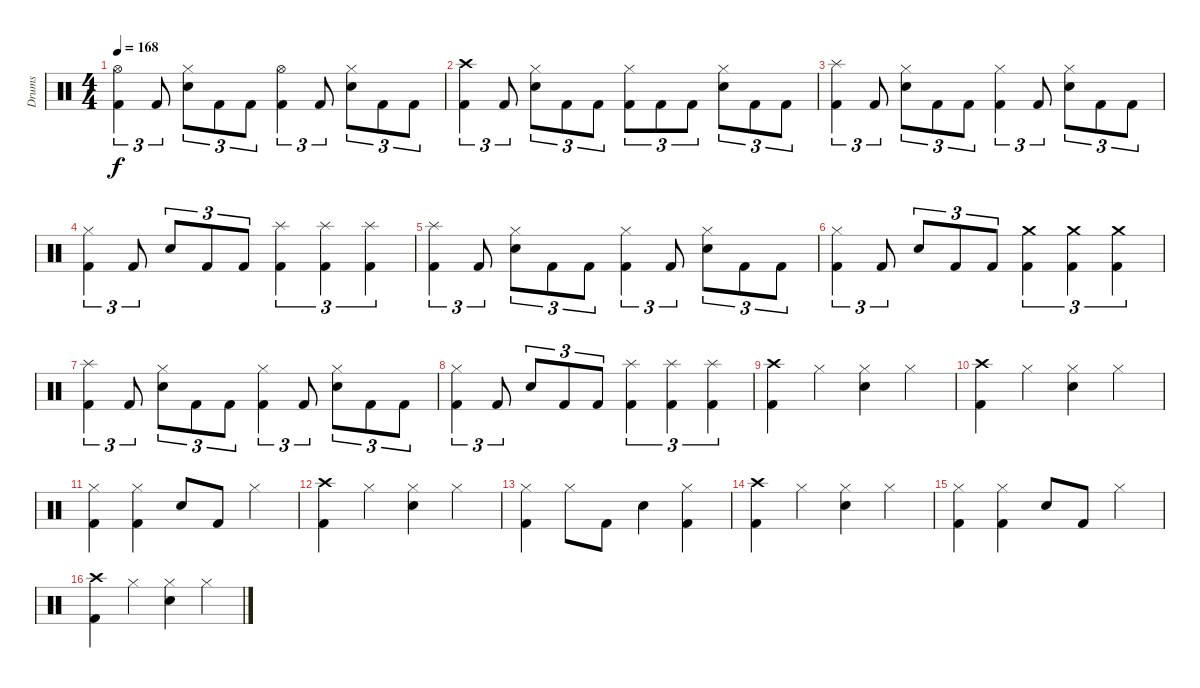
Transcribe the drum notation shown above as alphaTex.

\track ("Drums" "Drums") {instrument percussion}
\staff {score}
\articulation defaults
\ts (4 4)
\tempo 168
\clef neutral
\ks c
("Kick (hit) 2" "Hi-Hat (open)").4{tu (3 2) dy f} "Kick (hit) 2".8{tu (3 2)} ("Hi-Hat (closed)" "Electric Snare (hit)").8{tu (3 2)} "Kick (hit) 2".8{tu (3 2)} "Kick (hit) 2".8{tu (3 2)} ("Kick (hit) 2" "Hi-Hat (open)").4{tu (3 2)} "Kick (hit) 2".8{tu (3 2)} ("Hi-Hat (closed)" "Electric Snare (hit)").8{tu (3 2)} "Kick (hit) 2".8{tu (3 2)} "Kick (hit) 2".8{tu (3 2)} |
("Kick (hit) 2" "Crash high (hit)").4{tu (3 2)} "Kick (hit) 2".8{tu (3 2)} ("Hi-Hat (closed)" "Electric Snare (hit)").8{tu (3 2)} "Kick (hit) 2".8{tu (3 2)} "Kick (hit) 2".8{tu (3 2)} ("Kick (hit) 2" "Hi-Hat (closed)").8{tu (3 2)} "Kick (hit) 2".8{tu (3 2)} "Kick (hit) 2".8{tu (3 2)} ("Hi-Hat (closed)" "Electric Snare (hit)").8{tu (3 2)} "Kick (hit) 2".8{tu (3 2)} "Kick (hit) 2".8{tu (3 2)} |
("Kick (hit) 2" "Splash (hit)").4{tu (3 2)} "Kick (hit) 2".8{tu (3 2)} ("Electric Snare (hit)" "Hi-Hat (closed)").8{tu (3 2)} "Kick (hit) 2".8{tu (3 2)} "Kick (hit) 2".8{tu (3 2)} ("Kick (hit) 2" "Hi-Hat (closed)").4{tu (3 2)} "Kick (hit) 2".8{tu (3 2)} ("Electric Snare (hit)" "Hi-Hat (closed)").8{tu (3 2)} "Kick (hit) 2".8{tu (3 2)} "Kick (hit) 2".8{tu (3 2)} |
("Kick (hit) 2" "Hi-Hat (closed)").4{tu (3 2)} "Kick (hit) 2".8{tu (3 2)} "Electric Snare (hit)".8{tu (3 2)} "Kick (hit) 2".8{tu (3 2)} "Kick (hit) 2".8{tu (3 2)} ("Kick (hit) 2" "Splash (hit)").4{tu (3 2)} ("Kick (hit) 2" "Splash (hit)").4{tu (3 2)} ("Kick (hit) 2" "Splash (hit)").4{tu (3 2)} |
("Kick (hit) 2" "Splash (hit)").4{tu (3 2)} "Kick (hit) 2".8{tu (3 2)} ("Electric Snare (hit)" "Hi-Hat (closed)").8{tu (3 2)} "Kick (hit) 2".8{tu (3 2)} "Kick (hit) 2".8{tu (3 2)} ("Kick (hit) 2" "Hi-Hat (closed)").4{tu (3 2)} "Kick (hit) 2".8{tu (3 2)} ("Electric Snare (hit)" "Hi-Hat (closed)").8{tu (3 2)} "Kick (hit) 2".8{tu (3 2)} "Kick (hit) 2".8{tu (3 2)} |
("Kick (hit) 2" "Hi-Hat (closed)").4{tu (3 2)} "Kick (hit) 2".8{tu (3 2)} "Electric Snare (hit)".8{tu (3 2)} "Kick (hit) 2".8{tu (3 2)} "Kick (hit) 2".8{tu (3 2)} ("Kick (hit) 2" "Crash medium (hit)").4{tu (3 2) balance 5} ("Kick (hit) 2" "Crash medium (hit)").4{tu (3 2)} ("Kick (hit) 2" "Crash medium (hit)").4{tu (3 2)} |
("Kick (hit) 2" "Splash (hit)").4{tu (3 2) balance 8} "Kick (hit) 2".8{tu (3 2)} ("Electric Snare (hit)" "Hi-Hat (closed)").8{tu (3 2)} "Kick (hit) 2".8{tu (3 2)} "Kick (hit) 2".8{tu (3 2)} ("Kick (hit) 2" "Hi-Hat (closed)").4{tu (3 2)} "Kick (hit) 2".8{tu (3 2)} ("Electric Snare (hit)" "Hi-Hat (closed)").8{tu (3 2)} "Kick (hit) 2".8{tu (3 2)} "Kick (hit) 2".8{tu (3 2)} |
("Kick (hit) 2" "Hi-Hat (closed)").4{tu (3 2)} "Kick (hit) 2".8{tu (3 2)} "Electric Snare (hit)".8{tu (3 2)} "Kick (hit) 2".8{tu (3 2)} "Kick (hit) 2".8{tu (3 2)} ("Kick (hit) 2" "Splash (hit)").4{tu (3 2)} ("Kick (hit) 2" "Splash (hit)").4{tu (3 2)} ("Kick (hit) 2" "Splash (hit)").4{tu (3 2)} |
("Kick (hit) 2" "Crash high (hit)").4 "Hi-Hat (closed)".4 ("Hi-Hat (closed)" "Electric Snare (hit)").4 "Hi-Hat (closed)".4 |
("Kick (hit) 2" "Crash high (hit)").4 "Hi-Hat (closed)".4 ("Hi-Hat (closed)" "Electric Snare (hit)").4 "Hi-Hat (closed)".4 |
("Kick (hit) 2" "Hi-Hat (closed)").4 ("Kick (hit) 2" "Hi-Hat (closed)").4 "Electric Snare (hit)".8 "Kick (hit) 2".8 "Hi-Hat (closed)".4 |
("Kick (hit) 2" "Crash high (hit)").4 "Hi-Hat (closed)".4 ("Hi-Hat (closed)" "Electric Snare (hit)").4 "Hi-Hat (closed)".4 |
("Kick (hit) 2" "Hi-Hat (closed)").4 "Hi-Hat (closed)".8 "Kick (hit) 2".8 "Electric Snare (hit)".4 ("Hi-Hat (closed)" "Kick (hit) 2").4 |
("Kick (hit) 2" "Crash high (hit)").4 "Hi-Hat (closed)".4 ("Hi-Hat (closed)" "Electric Snare (hit)").4 "Hi-Hat (closed)".4 |
("Kick (hit) 2" "Hi-Hat (closed)").4 ("Kick (hit) 2" "Hi-Hat (closed)").4 "Electric Snare (hit)".8 "Kick (hit) 2".8 "Hi-Hat (closed)".4 |
("Kick (hit) 2" "Crash high (hit)").4 "Hi-Hat (closed)".4 ("Hi-Hat (closed)" "Electric Snare (hit)").4 "Hi-Hat (closed)".4
